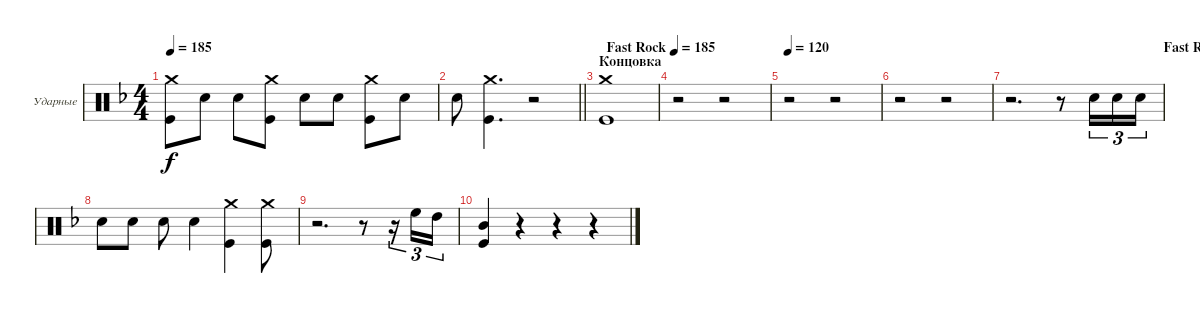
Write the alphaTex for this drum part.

\bracketExtendMode groupsimilarinstruments
\firstSystemTrackNameOrientation horizontal
\otherSystemsTrackNameOrientation horizontal
\track ("Александр Львов" "Ударные") {instrument percussion}
\staff {score}
\articulation defaults
\ts (4 4)
\tempo 185
\clef neutral
\ks dminor
("Kick (hit)" "Crash medium (hit)").8{dy f} "Snare (hit) 2".8 "Snare (hit) 2".8 ("Kick (hit)" "Crash medium (hit)").8 "Snare (hit) 2".8 "Snare (hit) 2".8 ("Kick (hit)" "Crash medium (hit)").8 "Snare (hit) 2".8 |
\barLineRight lightlight "Snare (hit) 2".8
("Kick (hit)" "Crash medium (hit)").4{d} r.2 |
\section ("" "Концовка")
\tempo (185 "Fast Rock")
("Kick (hit)" "Crash medium (hit)").1 |
r.2 r.2 |
\tempo 120
r.2 r.2 |
r.2 r.2 |
\tempo (185 "Fast Rock" 1)
r.2{d} r.8 "Snare (hit) 2".16{tu (3 2)} "Snare (hit) 2".16{tu (3 2)} "Snare (hit) 2".16{tu (3 2)} |
"Snare (hit) 2".8 "Snare (hit) 2".8 "Snare (hit) 2".8 "Snare (hit) 2".4 ("Kick (hit)" "Crash medium (hit)").4 ("Kick (hit)" "Crash medium (hit)").8 |
r.2{d} r.8 r.16{tu (3 2)} "High Floor Tom (hit)".16{tu (3 2)} "High Tom (hit)".16{tu (3 2)} |
("Kick (hit)" "Mid Tom (hit)").4 r.4 r.4 r.4
